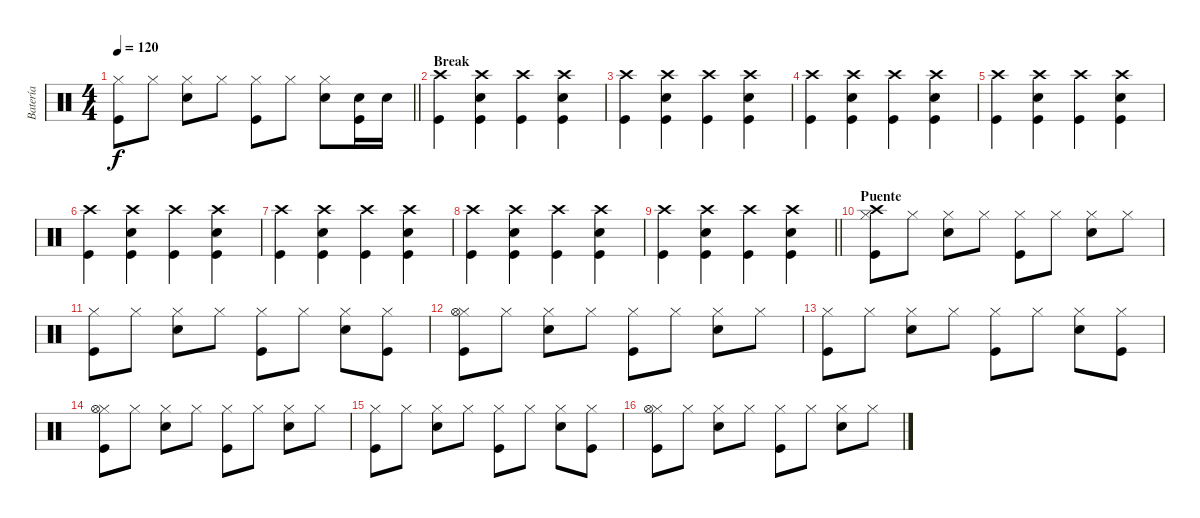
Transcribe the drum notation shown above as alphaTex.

\track ("Batería" "Batería") {instrument percussion}
\staff {score}
\articulation defaults
\ts (4 4)
\tempo 120
\clef neutral
\barLineRight lightlight
\ks c
("Kick (hit)" "Hi-Hat (closed)").8{dy f} "Hi-Hat (closed)".8 ("Electric Snare (hit)" "Hi-Hat (closed)").8 "Hi-Hat (closed)".8 ("Kick (hit)" "Hi-Hat (closed)").8 "Hi-Hat (closed)".8 ("Electric Snare (hit)" "Hi-Hat (closed)").8 ("Kick (hit)" "Electric Snare (hit)").16 "Electric Snare (hit)".16 |
\section ("" "Break")
("Kick (hit)" "Crash high (hit)").4 ("Kick (hit)" "Crash high (hit)" "Electric Snare (hit)").4 ("Kick (hit)" "Crash high (hit)").4 ("Kick (hit)" "Crash high (hit)" "Electric Snare (hit)").4 |
("Kick (hit)" "Crash high (hit)").4 ("Kick (hit)" "Crash high (hit)" "Electric Snare (hit)").4 ("Kick (hit)" "Crash high (hit)").4 ("Kick (hit)" "Crash high (hit)" "Electric Snare (hit)").4 |
("Kick (hit)" "Crash high (hit)").4 ("Kick (hit)" "Crash high (hit)" "Electric Snare (hit)").4 ("Kick (hit)" "Crash high (hit)").4 ("Kick (hit)" "Crash high (hit)" "Electric Snare (hit)").4 |
("Kick (hit)" "Crash high (hit)").4 ("Kick (hit)" "Crash high (hit)" "Electric Snare (hit)").4 ("Kick (hit)" "Crash high (hit)").4 ("Kick (hit)" "Crash high (hit)" "Electric Snare (hit)").4 |
("Kick (hit)" "Crash high (hit)").4 ("Kick (hit)" "Crash high (hit)" "Electric Snare (hit)").4 ("Kick (hit)" "Crash high (hit)").4 ("Kick (hit)" "Crash high (hit)" "Electric Snare (hit)").4 |
("Kick (hit)" "Crash high (hit)").4 ("Kick (hit)" "Crash high (hit)" "Electric Snare (hit)").4 ("Kick (hit)" "Crash high (hit)").4 ("Kick (hit)" "Crash high (hit)" "Electric Snare (hit)").4 |
("Kick (hit)" "Crash high (hit)").4 ("Kick (hit)" "Crash high (hit)" "Electric Snare (hit)").4 ("Kick (hit)" "Crash high (hit)").4 ("Kick (hit)" "Crash high (hit)" "Electric Snare (hit)").4 |
\barLineRight lightlight
("Kick (hit)" "Crash high (hit)").4 ("Kick (hit)" "Crash high (hit)" "Electric Snare (hit)").4 ("Kick (hit)" "Crash high (hit)").4 ("Kick (hit)" "Crash high (hit)" "Electric Snare (hit)").4 |
\section ("" "Puente")
("Kick (hit)" "Hi-Hat (closed)" "Crash high (hit)").8 "Hi-Hat (closed)".8 ("Electric Snare (hit)" "Hi-Hat (closed)").8 "Hi-Hat (closed)".8 ("Kick (hit)" "Hi-Hat (closed)").8 "Hi-Hat (closed)".8 ("Electric Snare (hit)" "Hi-Hat (closed)").8 "Hi-Hat (closed)".8 |
("Kick (hit)" "Hi-Hat (closed)").8 "Hi-Hat (closed)".8 ("Electric Snare (hit)" "Hi-Hat (closed)").8 "Hi-Hat (closed)".8 ("Kick (hit)" "Hi-Hat (closed)").8 "Hi-Hat (closed)".8 ("Electric Snare (hit)" "Hi-Hat (closed)").8 ("Kick (hit)" "Hi-Hat (closed)").8 |
("Kick (hit)" "Hi-Hat (closed)" "Hi-Hat (open)").8 "Hi-Hat (closed)".8 ("Electric Snare (hit)" "Hi-Hat (closed)").8 "Hi-Hat (closed)".8 ("Kick (hit)" "Hi-Hat (closed)").8 "Hi-Hat (closed)".8 ("Electric Snare (hit)" "Hi-Hat (closed)").8 "Hi-Hat (closed)".8 |
("Kick (hit)" "Hi-Hat (closed)").8 "Hi-Hat (closed)".8 ("Electric Snare (hit)" "Hi-Hat (closed)").8 "Hi-Hat (closed)".8 ("Kick (hit)" "Hi-Hat (closed)").8 "Hi-Hat (closed)".8 ("Electric Snare (hit)" "Hi-Hat (closed)").8 ("Kick (hit)" "Hi-Hat (closed)").8 |
("Kick (hit)" "Hi-Hat (closed)" "Hi-Hat (open)").8 "Hi-Hat (closed)".8 ("Electric Snare (hit)" "Hi-Hat (closed)").8 "Hi-Hat (closed)".8 ("Kick (hit)" "Hi-Hat (closed)").8 "Hi-Hat (closed)".8 ("Electric Snare (hit)" "Hi-Hat (closed)").8 "Hi-Hat (closed)".8 |
("Kick (hit)" "Hi-Hat (closed)").8 "Hi-Hat (closed)".8 ("Electric Snare (hit)" "Hi-Hat (closed)").8 "Hi-Hat (closed)".8 ("Kick (hit)" "Hi-Hat (closed)").8 "Hi-Hat (closed)".8 ("Electric Snare (hit)" "Hi-Hat (closed)").8 ("Kick (hit)" "Hi-Hat (closed)").8 |
("Kick (hit)" "Hi-Hat (closed)" "Hi-Hat (open)").8 "Hi-Hat (closed)".8 ("Electric Snare (hit)" "Hi-Hat (closed)").8 "Hi-Hat (closed)".8 ("Kick (hit)" "Hi-Hat (closed)").8 "Hi-Hat (closed)".8 ("Electric Snare (hit)" "Hi-Hat (closed)").8 "Hi-Hat (closed)".8
